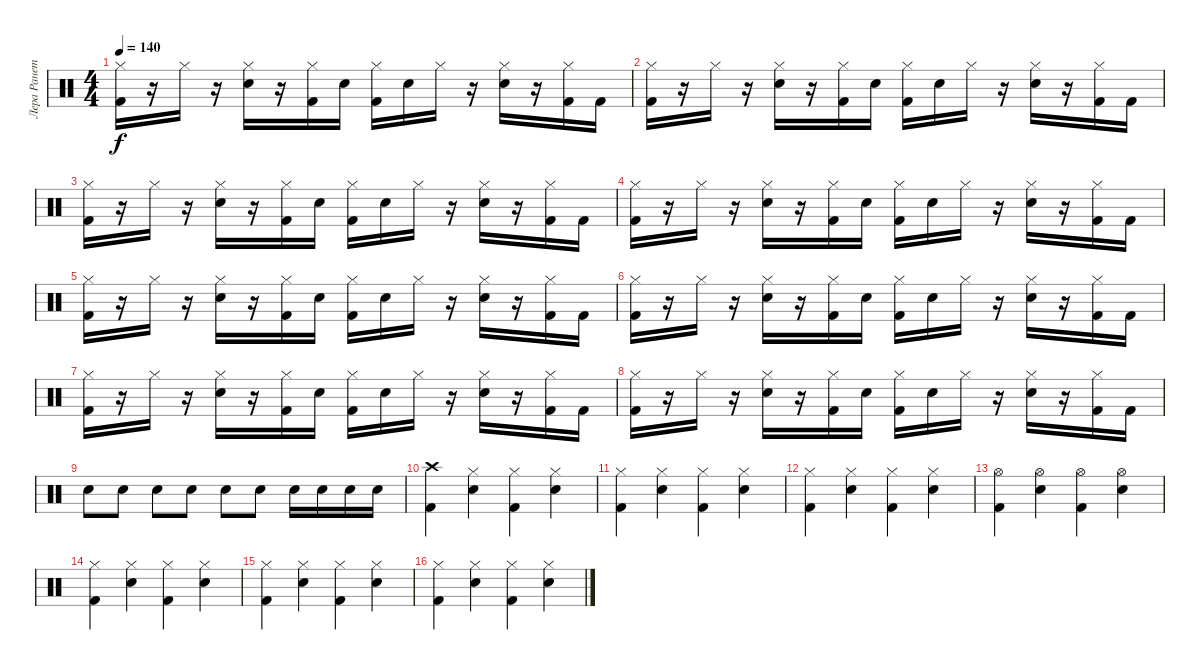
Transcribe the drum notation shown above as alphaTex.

\track ("Лера Ранетка" "Лера Ранет") {instrument percussion}
\staff {score}
\articulation defaults
\ts (4 4)
\tempo 140
\clef neutral
\ks c
("Hi-Hat (closed)" "Kick (hit) 2").16{dy f} r.16 "Hi-Hat (closed)".16 r.16 ("Hi-Hat (closed)" "Snare (hit) 2").16 r.16 ("Hi-Hat (closed)" "Kick (hit) 2").16 "Snare (hit) 2".16 ("Hi-Hat (closed)" "Kick (hit) 2").16 "Snare (hit) 2".16 "Hi-Hat (closed)".16 r.16 ("Hi-Hat (closed)" "Snare (hit) 2").16 r.16 ("Hi-Hat (closed)" "Kick (hit) 2").16 "Kick (hit) 2".16 |
("Hi-Hat (closed)" "Kick (hit) 2").16 r.16 "Hi-Hat (closed)".16 r.16 ("Hi-Hat (closed)" "Snare (hit) 2").16 r.16 ("Hi-Hat (closed)" "Kick (hit) 2").16 "Snare (hit) 2".16 ("Hi-Hat (closed)" "Kick (hit) 2").16 "Snare (hit) 2".16 "Hi-Hat (closed)".16 r.16 ("Hi-Hat (closed)" "Snare (hit) 2").16 r.16 ("Hi-Hat (closed)" "Kick (hit) 2").16 "Kick (hit) 2".16 |
("Hi-Hat (closed)" "Kick (hit) 2").16 r.16 "Hi-Hat (closed)".16 r.16 ("Hi-Hat (closed)" "Snare (hit) 2").16 r.16 ("Hi-Hat (closed)" "Kick (hit) 2").16 "Snare (hit) 2".16 ("Hi-Hat (closed)" "Kick (hit) 2").16 "Snare (hit) 2".16 "Hi-Hat (closed)".16 r.16 ("Hi-Hat (closed)" "Snare (hit) 2").16 r.16 ("Hi-Hat (closed)" "Kick (hit) 2").16 "Kick (hit) 2".16 |
("Hi-Hat (closed)" "Kick (hit) 2").16 r.16 "Hi-Hat (closed)".16 r.16 ("Hi-Hat (closed)" "Snare (hit) 2").16 r.16 ("Hi-Hat (closed)" "Kick (hit) 2").16 "Snare (hit) 2".16 ("Hi-Hat (closed)" "Kick (hit) 2").16 "Snare (hit) 2".16 "Hi-Hat (closed)".16 r.16 ("Hi-Hat (closed)" "Snare (hit) 2").16 r.16 ("Hi-Hat (closed)" "Kick (hit) 2").16 "Kick (hit) 2".16 |
("Hi-Hat (closed)" "Kick (hit) 2").16 r.16 "Hi-Hat (closed)".16 r.16 ("Hi-Hat (closed)" "Snare (hit) 2").16 r.16 ("Hi-Hat (closed)" "Kick (hit) 2").16 "Snare (hit) 2".16 ("Hi-Hat (closed)" "Kick (hit) 2").16 "Snare (hit) 2".16 "Hi-Hat (closed)".16 r.16 ("Hi-Hat (closed)" "Snare (hit) 2").16 r.16 ("Hi-Hat (closed)" "Kick (hit) 2").16 "Kick (hit) 2".16 |
("Hi-Hat (closed)" "Kick (hit) 2").16 r.16 "Hi-Hat (closed)".16 r.16 ("Hi-Hat (closed)" "Snare (hit) 2").16 r.16 ("Hi-Hat (closed)" "Kick (hit) 2").16 "Snare (hit) 2".16 ("Hi-Hat (closed)" "Kick (hit) 2").16 "Snare (hit) 2".16 "Hi-Hat (closed)".16 r.16 ("Hi-Hat (closed)" "Snare (hit) 2").16 r.16 ("Hi-Hat (closed)" "Kick (hit) 2").16 "Kick (hit) 2".16 |
("Hi-Hat (closed)" "Kick (hit) 2").16 r.16 "Hi-Hat (closed)".16 r.16 ("Hi-Hat (closed)" "Snare (hit) 2").16 r.16 ("Hi-Hat (closed)" "Kick (hit) 2").16 "Snare (hit) 2".16 ("Hi-Hat (closed)" "Kick (hit) 2").16 "Snare (hit) 2".16 "Hi-Hat (closed)".16 r.16 ("Hi-Hat (closed)" "Snare (hit) 2").16 r.16 ("Hi-Hat (closed)" "Kick (hit) 2").16 "Kick (hit) 2".16 |
("Hi-Hat (closed)" "Kick (hit) 2").16 r.16 "Hi-Hat (closed)".16 r.16 ("Hi-Hat (closed)" "Snare (hit) 2").16 r.16 ("Hi-Hat (closed)" "Kick (hit) 2").16 "Snare (hit) 2".16 ("Hi-Hat (closed)" "Kick (hit) 2").16 "Snare (hit) 2".16 "Hi-Hat (closed)".16 r.16 ("Hi-Hat (closed)" "Snare (hit) 2").16 r.16 ("Hi-Hat (closed)" "Kick (hit) 2").16 "Kick (hit) 2".16 |
"Snare (hit) 2".8 "Snare (hit) 2".8 "Snare (hit) 2".8 "Snare (hit) 2".8 "Snare (hit) 2".8 "Snare (hit) 2".8 "Snare (hit) 2".16 "Snare (hit) 2".16 "Snare (hit) 2".16 "Snare (hit) 2".16 |
("Crash high (hit)" "Kick (hit) 2").4 ("Hi-Hat (closed)" "Snare (hit) 2").4 ("Hi-Hat (closed)" "Kick (hit) 2").4 ("Hi-Hat (closed)" "Snare (hit) 2").4 |
("Hi-Hat (closed)" "Kick (hit) 2").4 ("Hi-Hat (closed)" "Snare (hit) 2").4 ("Hi-Hat (closed)" "Kick (hit) 2").4 ("Hi-Hat (closed)" "Snare (hit) 2").4 |
("Hi-Hat (closed)" "Kick (hit) 2").4 ("Hi-Hat (closed)" "Snare (hit) 2").4 ("Hi-Hat (closed)" "Kick (hit) 2").4 ("Hi-Hat (closed)" "Snare (hit) 2").4 |
("Hi-Hat (open)" "Kick (hit) 2").4 ("Hi-Hat (open)" "Snare (hit) 2").4 ("Hi-Hat (open)" "Kick (hit) 2").4 ("Hi-Hat (open)" "Snare (hit) 2").4 |
("Hi-Hat (closed)" "Kick (hit) 2").4 ("Hi-Hat (closed)" "Snare (hit) 2").4 ("Hi-Hat (closed)" "Kick (hit) 2").4 ("Hi-Hat (closed)" "Snare (hit) 2").4 |
("Hi-Hat (closed)" "Kick (hit) 2").4 ("Hi-Hat (closed)" "Snare (hit) 2").4 ("Hi-Hat (closed)" "Kick (hit) 2").4 ("Hi-Hat (closed)" "Snare (hit) 2").4 |
("Hi-Hat (closed)" "Kick (hit) 2").4 ("Hi-Hat (closed)" "Snare (hit) 2").4 ("Hi-Hat (closed)" "Kick (hit) 2").4 ("Hi-Hat (closed)" "Snare (hit) 2").4
